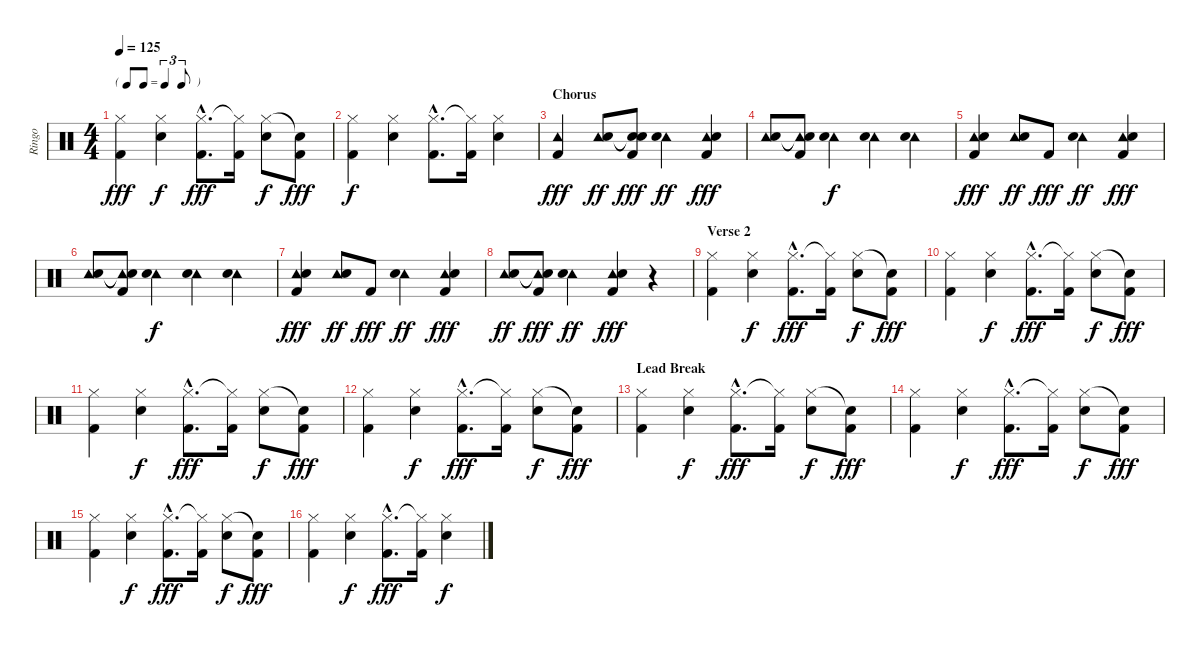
\track ("Ringo" "Ringo") {instrument percussion}
\staff {score}
\articulation defaults
\ts (4 4)
\tf triplet8th
\tempo 125
\clef neutral
\ks c
("Hi-Hat (closed)" "Kick (hit) 2").4{dy fff} ("Hi-Hat (closed)" "Electric Snare (hit)").4{dy f} ("Hi-Hat (closed)"{hac} "Kick (hit) 2"{hac}).8{d dy fff} ("Hi-Hat (closed)"{t} "Kick (hit) 2").16 ("Hi-Hat (closed)" "Electric Snare (hit)").8{dy f} ("Snare (hit)"{t} "Kick (hit) 2").8{dy fff} |
("Hi-Hat (closed)" "Kick (hit) 2").4{dy f} ("Hi-Hat (closed)" "Electric Snare (hit)").4 ("Hi-Hat (closed)"{hac} "Kick (hit) 2"{hac}).8{d} ("Hi-Hat (closed)"{t} "Kick (hit) 2").16 ("Hi-Hat (closed)" "Electric Snare (hit)").4 |
\section ("" "Chorus")
("Tambourine (hit)" "Kick (hit) 2").4{dy fff} ("Tambourine (hit)" "Electric Snare (hit)").8{dy ff} ("Snare (hit)"{t} "Snare (hit)"{t} "Kick (hit) 2").8{dy fff} ("Tambourine (hit)" "Electric Snare (hit)").4{dy ff} ("Tambourine (hit)" "Electric Snare (hit)" "Kick (hit) 2").4{dy fff} |
("Tambourine (hit)" "Electric Snare (hit)").8 ("Tambourine (hit)"{t} "Electric Snare (hit)"{t} "Kick (hit) 2").8 ("Tambourine (hit)" "Electric Snare (hit)").4{dy f} ("Tambourine (hit)" "Electric Snare (hit)").4 ("Tambourine (hit)" "Electric Snare (hit)").4 |
("Tambourine (hit)" "Electric Snare (hit)" "Kick (hit) 2").4{dy fff} ("Tambourine (hit)" "Electric Snare (hit)").8{dy ff} "Kick (hit) 2".8{dy fff} ("Tambourine (hit)" "Electric Snare (hit)").4{dy ff} ("Tambourine (hit)" "Electric Snare (hit)" "Kick (hit) 2").4{dy fff} |
("Tambourine (hit)" "Electric Snare (hit)").8 ("Tambourine (hit)"{t} "Electric Snare (hit)"{t} "Kick (hit) 2").8 ("Tambourine (hit)" "Electric Snare (hit)").4{dy f} ("Tambourine (hit)" "Electric Snare (hit)").4 ("Tambourine (hit)" "Electric Snare (hit)").4 |
("Tambourine (hit)" "Electric Snare (hit)" "Kick (hit) 2").4{dy fff} ("Tambourine (hit)" "Electric Snare (hit)").8{dy ff} "Kick (hit) 2".8{dy fff} ("Tambourine (hit)" "Electric Snare (hit)").4{dy ff} ("Tambourine (hit)" "Electric Snare (hit)" "Kick (hit) 2").4{dy fff} |
("Tambourine (hit)" "Electric Snare (hit)").8{dy ff} ("Tambourine (hit)"{t} "Electric Snare (hit)"{t} "Kick (hit) 2").8{dy fff} ("Tambourine (hit)" "Electric Snare (hit)").4{dy ff} ("Tambourine (hit)" "Electric Snare (hit)" "Kick (hit) 2").4{dy fff} r.4 |
\section ("" "Verse 2")
("Hi-Hat (closed)" "Kick (hit) 2").4 ("Hi-Hat (closed)" "Electric Snare (hit)").4{dy f} ("Hi-Hat (closed)"{hac} "Kick (hit) 2"{hac}).8{d dy fff} ("Hi-Hat (closed)"{t} "Kick (hit) 2").16 ("Hi-Hat (closed)" "Electric Snare (hit)").8{dy f} ("Snare (hit)"{t} "Kick (hit) 2").8{dy fff} |
("Hi-Hat (closed)" "Kick (hit) 2").4 ("Hi-Hat (closed)" "Electric Snare (hit)").4{dy f} ("Hi-Hat (closed)"{hac} "Kick (hit) 2"{hac}).8{d dy fff} ("Hi-Hat (closed)"{t} "Kick (hit) 2").16 ("Hi-Hat (closed)" "Electric Snare (hit)").8{dy f} ("Snare (hit)"{t} "Kick (hit) 2").8{dy fff} |
("Hi-Hat (closed)" "Kick (hit) 2").4 ("Hi-Hat (closed)" "Electric Snare (hit)").4{dy f} ("Hi-Hat (closed)"{hac} "Kick (hit) 2"{hac}).8{d dy fff} ("Hi-Hat (closed)"{t} "Kick (hit) 2").16 ("Hi-Hat (closed)" "Electric Snare (hit)").8{dy f} ("Snare (hit)"{t} "Kick (hit) 2").8{dy fff} |
("Hi-Hat (closed)" "Kick (hit) 2").4 ("Hi-Hat (closed)" "Electric Snare (hit)").4{dy f} ("Hi-Hat (closed)"{hac} "Kick (hit) 2"{hac}).8{d dy fff} ("Hi-Hat (closed)"{t} "Kick (hit) 2").16 ("Hi-Hat (closed)" "Electric Snare (hit)").8{dy f} ("Snare (hit)"{t} "Kick (hit) 2").8{dy fff} |
\section ("" "Lead Break")
("Hi-Hat (closed)" "Kick (hit) 2").4 ("Hi-Hat (closed)" "Electric Snare (hit)").4{dy f} ("Hi-Hat (closed)"{hac} "Kick (hit) 2"{hac}).8{d dy fff} ("Hi-Hat (closed)"{t} "Kick (hit) 2").16 ("Hi-Hat (closed)" "Electric Snare (hit)").8{dy f} ("Snare (hit)"{t} "Kick (hit) 2").8{dy fff} |
("Hi-Hat (closed)" "Kick (hit) 2").4 ("Hi-Hat (closed)" "Electric Snare (hit)").4{dy f} ("Hi-Hat (closed)"{hac} "Kick (hit) 2"{hac}).8{d dy fff} ("Hi-Hat (closed)"{t} "Kick (hit) 2").16 ("Hi-Hat (closed)" "Electric Snare (hit)").8{dy f} ("Snare (hit)"{t} "Kick (hit) 2").8{dy fff} |
("Hi-Hat (closed)" "Kick (hit) 2").4 ("Hi-Hat (closed)" "Electric Snare (hit)").4{dy f} ("Hi-Hat (closed)"{hac} "Kick (hit) 2"{hac}).8{d dy fff} ("Hi-Hat (closed)"{t} "Kick (hit) 2").16 ("Hi-Hat (closed)" "Electric Snare (hit)").8{dy f} ("Snare (hit)"{t} "Kick (hit) 2").8{dy fff} |
("Hi-Hat (closed)" "Kick (hit) 2").4 ("Hi-Hat (closed)" "Electric Snare (hit)").4{dy f} ("Hi-Hat (closed)"{hac} "Kick (hit) 2"{hac}).8{d dy fff} ("Hi-Hat (closed)"{t} "Kick (hit) 2").16 ("Hi-Hat (closed)" "Electric Snare (hit)").4{dy f}
